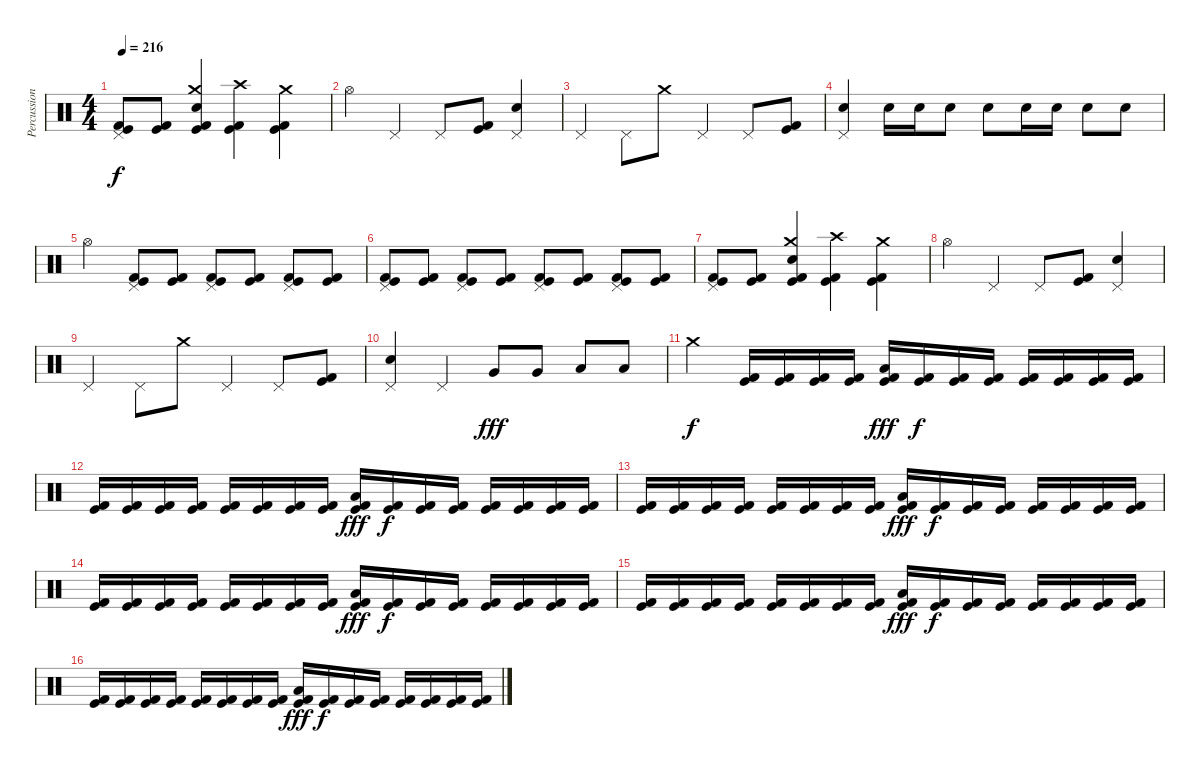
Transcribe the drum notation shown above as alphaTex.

\track ("Percussions" "Percussion") {instrument percussion}
\staff {score}
\articulation defaults
\ts (4 4)
\tempo 216
\clef neutral
\ks c
("Pedal Hi-Hat (hit)" "Kick (hit)" "Kick (hit) 2").8{dy f} ("Kick (hit)" "Kick (hit) 2").8 ("Crash medium (hit)" "Electric Snare (hit)" "Kick (hit)" "Kick (hit) 2").4 ("Crash high (hit)" "Kick (hit)" "Kick (hit) 2").4 ("Crash medium (hit)" "Kick (hit)" "Kick (hit) 2").4 |
"Hi-Hat (open)".4 "Pedal Hi-Hat (hit)".4 "Pedal Hi-Hat (hit)".8 ("Kick (hit)" "Kick (hit) 2").8 ("Pedal Hi-Hat (hit)" "Electric Snare (hit)").4 |
"Pedal Hi-Hat (hit)".4 "Pedal Hi-Hat (hit)".8 "Crash medium (hit)".8 "Pedal Hi-Hat (hit)".4 "Pedal Hi-Hat (hit)".8 ("Kick (hit)" "Kick (hit) 2").8 |
("Pedal Hi-Hat (hit)" "Electric Snare (hit)").4 "Electric Snare (hit)".16 "Electric Snare (hit)".16 "Electric Snare (hit)".8 "Electric Snare (hit)".8 "Electric Snare (hit)".16 "Electric Snare (hit)".16 "Electric Snare (hit)".8 "Electric Snare (hit)".8 |
"Hi-Hat (open)".4 ("Pedal Hi-Hat (hit)" "Kick (hit)" "Kick (hit) 2").8 ("Kick (hit)" "Kick (hit) 2").8 ("Pedal Hi-Hat (hit)" "Kick (hit)" "Kick (hit) 2").8 ("Kick (hit)" "Kick (hit) 2").8 ("Pedal Hi-Hat (hit)" "Kick (hit)" "Kick (hit) 2").8 ("Kick (hit)" "Kick (hit) 2").8 |
("Pedal Hi-Hat (hit)" "Kick (hit)" "Kick (hit) 2").8 ("Kick (hit)" "Kick (hit) 2").8 ("Pedal Hi-Hat (hit)" "Kick (hit)" "Kick (hit) 2").8 ("Kick (hit)" "Kick (hit) 2").8 ("Pedal Hi-Hat (hit)" "Kick (hit)" "Kick (hit) 2").8 ("Kick (hit)" "Kick (hit) 2").8 ("Pedal Hi-Hat (hit)" "Kick (hit)" "Kick (hit) 2").8 ("Kick (hit)" "Kick (hit) 2").8 |
("Pedal Hi-Hat (hit)" "Kick (hit)" "Kick (hit) 2").8 ("Kick (hit)" "Kick (hit) 2").8 ("Crash medium (hit)" "Electric Snare (hit)" "Kick (hit)" "Kick (hit) 2").4 ("Crash high (hit)" "Kick (hit)" "Kick (hit) 2").4 ("Crash medium (hit)" "Kick (hit)" "Kick (hit) 2").4 |
"Hi-Hat (open)".4 "Pedal Hi-Hat (hit)".4 "Pedal Hi-Hat (hit)".8 ("Kick (hit)" "Kick (hit) 2").8 ("Pedal Hi-Hat (hit)" "Electric Snare (hit)").4 |
"Pedal Hi-Hat (hit)".4 "Pedal Hi-Hat (hit)".8 "Crash medium (hit)".8 "Pedal Hi-Hat (hit)".4 "Pedal Hi-Hat (hit)".8 ("Kick (hit)" "Kick (hit) 2").8 |
("Pedal Hi-Hat (hit)" "Electric Snare (hit)").4 "Pedal Hi-Hat (hit)".4 "Very Low Tom (hit)".8{dy fff} "Very Low Tom (hit)".8 "Low Floor Tom (hit)".8 "Low Floor Tom (hit)".8 |
"Crash medium (hit)".4{dy f} ("Kick (hit)" "Kick (hit) 2").16 ("Kick (hit)" "Kick (hit) 2").16 ("Kick (hit)" "Kick (hit) 2").16 ("Kick (hit)" "Kick (hit) 2").16 ("Low Tom (hit)" "Kick (hit)" "Kick (hit) 2").16{dy fff} ("Kick (hit)" "Kick (hit) 2").16{dy f} ("Kick (hit)" "Kick (hit) 2").16 ("Kick (hit)" "Kick (hit) 2").16 ("Kick (hit)" "Kick (hit) 2").16 ("Kick (hit)" "Kick (hit) 2").16 ("Kick (hit)" "Kick (hit) 2").16 ("Kick (hit)" "Kick (hit) 2").16 |
("Kick (hit)" "Kick (hit) 2").16 ("Kick (hit)" "Kick (hit) 2").16 ("Kick (hit)" "Kick (hit) 2").16 ("Kick (hit)" "Kick (hit) 2").16 ("Kick (hit)" "Kick (hit) 2").16 ("Kick (hit)" "Kick (hit) 2").16 ("Kick (hit)" "Kick (hit) 2").16 ("Kick (hit)" "Kick (hit) 2").16 ("Low Tom (hit)" "Kick (hit)" "Kick (hit) 2").16{dy fff} ("Kick (hit)" "Kick (hit) 2").16{dy f} ("Kick (hit)" "Kick (hit) 2").16 ("Kick (hit)" "Kick (hit) 2").16 ("Kick (hit)" "Kick (hit) 2").16 ("Kick (hit)" "Kick (hit) 2").16 ("Kick (hit)" "Kick (hit) 2").16 ("Kick (hit)" "Kick (hit) 2").16 |
("Kick (hit)" "Kick (hit) 2").16 ("Kick (hit)" "Kick (hit) 2").16 ("Kick (hit)" "Kick (hit) 2").16 ("Kick (hit)" "Kick (hit) 2").16 ("Kick (hit)" "Kick (hit) 2").16 ("Kick (hit)" "Kick (hit) 2").16 ("Kick (hit)" "Kick (hit) 2").16 ("Kick (hit)" "Kick (hit) 2").16 ("Low Tom (hit)" "Kick (hit)" "Kick (hit) 2").16{dy fff} ("Kick (hit)" "Kick (hit) 2").16{dy f} ("Kick (hit)" "Kick (hit) 2").16 ("Kick (hit)" "Kick (hit) 2").16 ("Kick (hit)" "Kick (hit) 2").16 ("Kick (hit)" "Kick (hit) 2").16 ("Kick (hit)" "Kick (hit) 2").16 ("Kick (hit)" "Kick (hit) 2").16 |
("Kick (hit)" "Kick (hit) 2").16 ("Kick (hit)" "Kick (hit) 2").16 ("Kick (hit)" "Kick (hit) 2").16 ("Kick (hit)" "Kick (hit) 2").16 ("Kick (hit)" "Kick (hit) 2").16 ("Kick (hit)" "Kick (hit) 2").16 ("Kick (hit)" "Kick (hit) 2").16 ("Kick (hit)" "Kick (hit) 2").16 ("Low Tom (hit)" "Kick (hit)" "Kick (hit) 2").16{dy fff} ("Kick (hit)" "Kick (hit) 2").16{dy f} ("Kick (hit)" "Kick (hit) 2").16 ("Kick (hit)" "Kick (hit) 2").16 ("Kick (hit)" "Kick (hit) 2").16 ("Kick (hit)" "Kick (hit) 2").16 ("Kick (hit)" "Kick (hit) 2").16 ("Kick (hit)" "Kick (hit) 2").16 |
("Kick (hit)" "Kick (hit) 2").16 ("Kick (hit)" "Kick (hit) 2").16 ("Kick (hit)" "Kick (hit) 2").16 ("Kick (hit)" "Kick (hit) 2").16 ("Kick (hit)" "Kick (hit) 2").16 ("Kick (hit)" "Kick (hit) 2").16 ("Kick (hit)" "Kick (hit) 2").16 ("Kick (hit)" "Kick (hit) 2").16 ("Low Tom (hit)" "Kick (hit)" "Kick (hit) 2").16{dy fff} ("Kick (hit)" "Kick (hit) 2").16{dy f} ("Kick (hit)" "Kick (hit) 2").16 ("Kick (hit)" "Kick (hit) 2").16 ("Kick (hit)" "Kick (hit) 2").16 ("Kick (hit)" "Kick (hit) 2").16 ("Kick (hit)" "Kick (hit) 2").16 ("Kick (hit)" "Kick (hit) 2").16 |
("Kick (hit)" "Kick (hit) 2").16 ("Kick (hit)" "Kick (hit) 2").16 ("Kick (hit)" "Kick (hit) 2").16 ("Kick (hit)" "Kick (hit) 2").16 ("Kick (hit)" "Kick (hit) 2").16 ("Kick (hit)" "Kick (hit) 2").16 ("Kick (hit)" "Kick (hit) 2").16 ("Kick (hit)" "Kick (hit) 2").16 ("Low Tom (hit)" "Kick (hit)" "Kick (hit) 2").16{dy fff} ("Kick (hit)" "Kick (hit) 2").16{dy f} ("Kick (hit)" "Kick (hit) 2").16 ("Kick (hit)" "Kick (hit) 2").16 ("Kick (hit)" "Kick (hit) 2").16 ("Kick (hit)" "Kick (hit) 2").16 ("Kick (hit)" "Kick (hit) 2").16 ("Kick (hit)" "Kick (hit) 2").16
